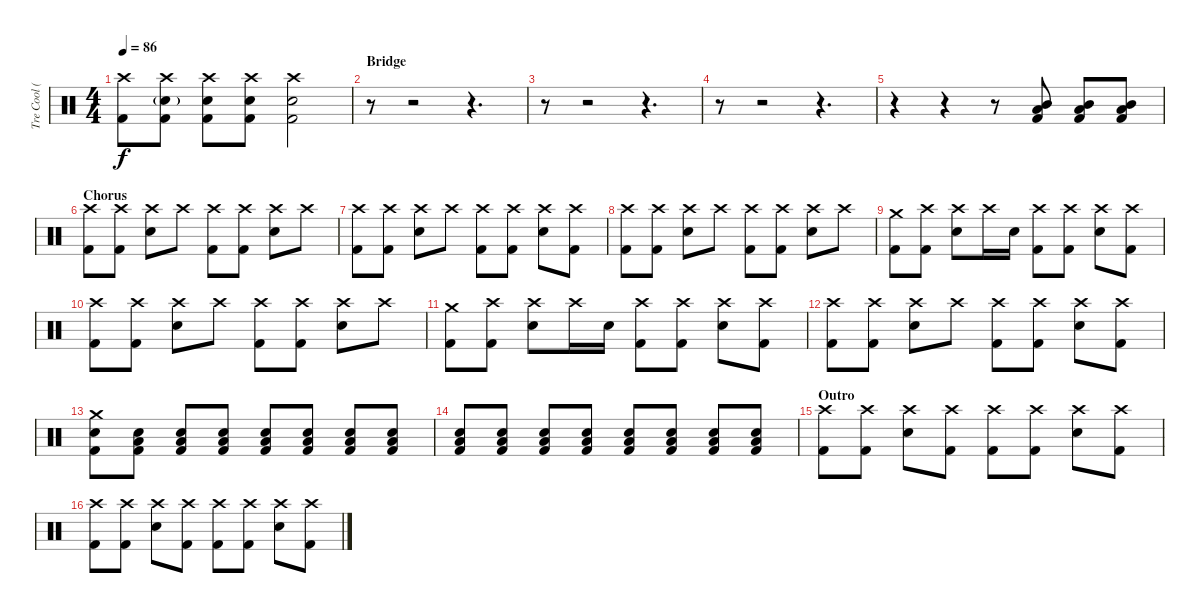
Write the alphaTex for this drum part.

\track ("Tre Cool (Drums)" "Tre Cool (") {instrument percussion}
\staff {score}
\articulation defaults
\ts (4 4)
\tempo 86
\clef neutral
\ks c
("Crash high (hit)" "Kick (hit) 2").8{dy f} ("Crash high (hit)" "Snare (hit) 2"{g} "Kick (hit) 2").8 ("Crash high (hit)" "Snare (hit) 2" "Kick (hit) 2").8 ("Crash high (hit)" "Snare (hit) 2" "Kick (hit) 2").8 ("Crash high (hit)" "Snare (hit) 2" "Kick (hit) 2").2 |
\section ("" "Bridge")
r.8 r.2 r.4{d} |
r.8 r.2 r.4{d} |
r.8 r.2 r.4{d} |
r.4 r.4 r.8 ("Mid Tom (hit)" "Low Tom (hit)" "Kick (hit) 2").8 ("Mid Tom (hit)" "Low Tom (hit)" "Kick (hit) 2").8 ("Mid Tom (hit)" "Low Tom (hit)" "Kick (hit) 2").8 |
\section ("" "Chorus")
("Crash high (hit)" "Kick (hit) 2").8 ("Crash high (hit)" "Kick (hit) 2").8 ("Crash high (hit)" "Snare (hit) 2").8 "Crash high (hit)".8 ("Crash high (hit)" "Kick (hit) 2").8 ("Crash high (hit)" "Kick (hit) 2").8 ("Crash high (hit)" "Snare (hit) 2").8 "Crash high (hit)".8 |
("Crash high (hit)" "Kick (hit) 2").8 ("Crash high (hit)" "Kick (hit) 2").8 ("Crash high (hit)" "Snare (hit) 2").8 "Crash high (hit)".8 ("Crash high (hit)" "Kick (hit) 2").8 ("Crash high (hit)" "Kick (hit) 2").8 ("Crash high (hit)" "Snare (hit) 2").8 ("Crash high (hit)" "Kick (hit) 2").8 |
("Crash high (hit)" "Kick (hit) 2").8 ("Crash high (hit)" "Kick (hit) 2").8 ("Crash high (hit)" "Snare (hit) 2").8 "Crash high (hit)".8 ("Crash high (hit)" "Kick (hit) 2").8 ("Crash high (hit)" "Kick (hit) 2").8 ("Crash high (hit)" "Snare (hit) 2").8 "Crash high (hit)".8 |
("Crash medium (hit)" "Kick (hit) 2").8 ("Crash high (hit)" "Kick (hit) 2").8 ("Crash high (hit)" "Snare (hit) 2").8 "Crash high (hit)".16 "Snare (hit) 2".16 ("Crash high (hit)" "Kick (hit) 2").8 ("Crash high (hit)" "Kick (hit) 2").8 ("Crash high (hit)" "Snare (hit) 2").8 ("Crash high (hit)" "Kick (hit) 2").8 |
("Crash high (hit)" "Kick (hit) 2").8 ("Crash high (hit)" "Kick (hit) 2").8 ("Crash high (hit)" "Snare (hit) 2").8 "Crash high (hit)".8 ("Crash high (hit)" "Kick (hit) 2").8 ("Crash high (hit)" "Kick (hit) 2").8 ("Crash high (hit)" "Snare (hit) 2").8 "Crash high (hit)".8 |
("Crash medium (hit)" "Kick (hit) 2").8 ("Crash high (hit)" "Kick (hit) 2").8 ("Crash high (hit)" "Snare (hit) 2").8 "Crash high (hit)".16 "Snare (hit) 2".16 ("Crash high (hit)" "Kick (hit) 2").8 ("Crash high (hit)" "Kick (hit) 2").8 ("Crash high (hit)" "Snare (hit) 2").8 ("Crash high (hit)" "Kick (hit) 2").8 |
("Crash high (hit)" "Kick (hit) 2").8 ("Crash high (hit)" "Kick (hit) 2").8 ("Crash high (hit)" "Snare (hit) 2").8 "Crash high (hit)".8 ("Crash high (hit)" "Kick (hit) 2").8 ("Crash high (hit)" "Kick (hit) 2").8 ("Crash high (hit)" "Snare (hit) 2").8 ("Crash high (hit)" "Kick (hit) 2").8 |
("Crash medium (hit)" "Snare (hit) 2" "Kick (hit) 2").8 ("Low Tom (hit)" "Snare (hit) 2" "Kick (hit) 2").8 ("Low Tom (hit)" "Snare (hit) 2" "Kick (hit) 2").8 ("Low Tom (hit)" "Snare (hit) 2" "Kick (hit) 2").8 ("Low Tom (hit)" "Snare (hit) 2" "Kick (hit) 2").8 ("Low Tom (hit)" "Snare (hit) 2" "Kick (hit) 2").8 ("Low Tom (hit)" "Snare (hit) 2" "Kick (hit) 2").8 ("Low Tom (hit)" "Snare (hit) 2" "Kick (hit) 2").8 |
("Low Tom (hit)" "Snare (hit) 2" "Kick (hit) 2").8 ("Low Tom (hit)" "Snare (hit) 2" "Kick (hit) 2").8 ("Low Tom (hit)" "Snare (hit) 2" "Kick (hit) 2").8 ("Low Tom (hit)" "Snare (hit) 2" "Kick (hit) 2").8 ("Low Tom (hit)" "Snare (hit) 2" "Kick (hit) 2").8 ("Low Tom (hit)" "Snare (hit) 2" "Kick (hit) 2").8 ("Low Tom (hit)" "Snare (hit) 2" "Kick (hit) 2").8 ("Low Tom (hit)" "Snare (hit) 2" "Kick (hit) 2").8 |
\section ("" "Outro")
("Crash high (hit)" "Kick (hit) 2").8 ("Crash high (hit)" "Kick (hit) 2").8 ("Crash high (hit)" "Snare (hit) 2").8 ("Crash high (hit)" "Kick (hit) 2").8 ("Crash high (hit)" "Kick (hit) 2").8 ("Crash high (hit)" "Kick (hit) 2").8 ("Crash high (hit)" "Snare (hit) 2").8 ("Crash high (hit)" "Kick (hit) 2").8 |
("Crash high (hit)" "Kick (hit) 2").8 ("Crash high (hit)" "Kick (hit) 2").8 ("Crash high (hit)" "Snare (hit) 2").8 ("Crash high (hit)" "Kick (hit) 2").8 ("Crash high (hit)" "Kick (hit) 2").8 ("Crash high (hit)" "Kick (hit) 2").8 ("Crash high (hit)" "Snare (hit) 2").8 ("Crash high (hit)" "Kick (hit) 2").8
